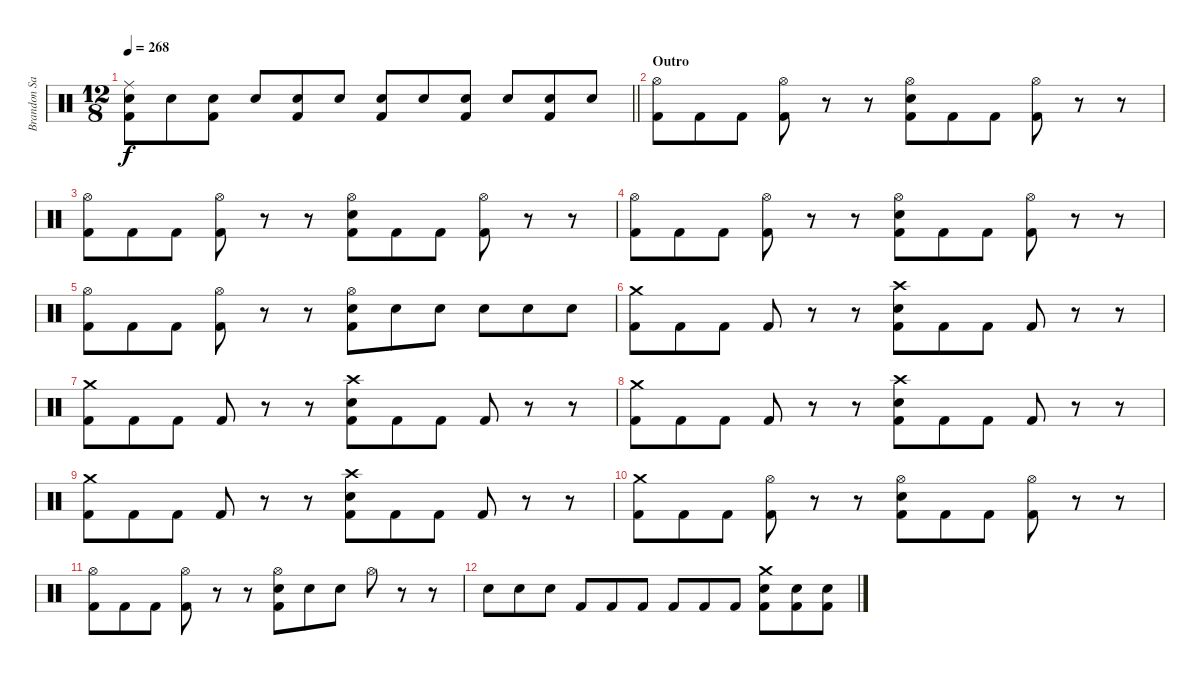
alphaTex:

\track ("Brandon Saller" "Brandon Sa") {instrument percussion}
\staff {score}
\articulation defaults
\ts (12 8)
\tempo 268
\clef neutral
\barLineRight lightlight
\ks c
("Ride (middle)" "Electric Snare (hit)" "Kick (hit) 2").8{dy f} "Electric Snare (hit)".8 ("Electric Snare (hit)" "Kick (hit) 2").8 "Electric Snare (hit)".8 ("Electric Snare (hit)" "Kick (hit) 2").8 "Electric Snare (hit)".8 ("Electric Snare (hit)" "Kick (hit) 2").8 "Electric Snare (hit)".8 ("Electric Snare (hit)" "Kick (hit) 2").8 "Electric Snare (hit)".8 ("Electric Snare (hit)" "Kick (hit) 2").8 "Electric Snare (hit)".8 |
\section ("" "Outro")
("Hi-Hat (open)" "Kick (hit) 2").8 "Kick (hit) 2".8 "Kick (hit) 2".8 ("Hi-Hat (open)" "Kick (hit) 2").8 r.8 r.8 ("Hi-Hat (open)" "Electric Snare (hit)" "Kick (hit) 2").8 "Kick (hit) 2".8 "Kick (hit) 2".8 ("Hi-Hat (open)" "Kick (hit) 2").8 r.8 r.8 |
("Hi-Hat (open)" "Kick (hit) 2").8 "Kick (hit) 2".8 "Kick (hit) 2".8 ("Hi-Hat (open)" "Kick (hit) 2").8 r.8 r.8 ("Hi-Hat (open)" "Electric Snare (hit)" "Kick (hit) 2").8 "Kick (hit) 2".8 "Kick (hit) 2".8 ("Hi-Hat (open)" "Kick (hit) 2").8 r.8 r.8 |
("Hi-Hat (open)" "Kick (hit) 2").8 "Kick (hit) 2".8 "Kick (hit) 2".8 ("Hi-Hat (open)" "Kick (hit) 2").8 r.8 r.8 ("Hi-Hat (open)" "Electric Snare (hit)" "Kick (hit) 2").8 "Kick (hit) 2".8 "Kick (hit) 2".8 ("Hi-Hat (open)" "Kick (hit) 2").8 r.8 r.8 |
("Hi-Hat (open)" "Kick (hit) 2").8 "Kick (hit) 2".8 "Kick (hit) 2".8 ("Hi-Hat (open)" "Kick (hit) 2").8 r.8 r.8 ("Hi-Hat (open)" "Electric Snare (hit)" "Kick (hit) 2").8 "Electric Snare (hit)".8 "Electric Snare (hit)".8 "Electric Snare (hit)".8 "Electric Snare (hit)".8 "Electric Snare (hit)".8 |
("Crash medium (hit)" "Kick (hit) 2").8 "Kick (hit) 2".8 "Kick (hit) 2".8 "Kick (hit) 2".8 r.8 r.8 ("Crash high (hit)" "Electric Snare (hit)" "Kick (hit) 2").8 "Kick (hit) 2".8 "Kick (hit) 2".8 "Kick (hit) 2".8 r.8 r.8 |
("Crash medium (hit)" "Kick (hit) 2").8 "Kick (hit) 2".8 "Kick (hit) 2".8 "Kick (hit) 2".8 r.8 r.8 ("Crash high (hit)" "Electric Snare (hit)" "Kick (hit) 2").8 "Kick (hit) 2".8 "Kick (hit) 2".8 "Kick (hit) 2".8 r.8 r.8 |
("Crash medium (hit)" "Kick (hit) 2").8 "Kick (hit) 2".8 "Kick (hit) 2".8 "Kick (hit) 2".8 r.8 r.8 ("Crash high (hit)" "Electric Snare (hit)" "Kick (hit) 2").8 "Kick (hit) 2".8 "Kick (hit) 2".8 "Kick (hit) 2".8 r.8 r.8 |
("Crash medium (hit)" "Kick (hit) 2").8 "Kick (hit) 2".8 "Kick (hit) 2".8 "Kick (hit) 2".8 r.8 r.8 ("Crash high (hit)" "Electric Snare (hit)" "Kick (hit) 2").8 "Kick (hit) 2".8 "Kick (hit) 2".8 "Kick (hit) 2".8 r.8 r.8 |
("Crash medium (hit)" "Kick (hit) 2").8 "Kick (hit) 2".8 "Kick (hit) 2".8 ("Hi-Hat (open)" "Kick (hit) 2").8 r.8 r.8 ("Hi-Hat (open)" "Electric Snare (hit)" "Kick (hit) 2").8 "Kick (hit) 2".8 "Kick (hit) 2".8 ("Hi-Hat (open)" "Kick (hit) 2").8 r.8 r.8 |
("Hi-Hat (open)" "Kick (hit) 2").8 "Kick (hit) 2".8 "Kick (hit) 2".8 ("Hi-Hat (open)" "Kick (hit) 2").8 r.8 r.8 ("Hi-Hat (open)" "Electric Snare (hit)" "Kick (hit) 2").8 "Electric Snare (hit)".8 "Electric Snare (hit)".8 "Hi-Hat (open)".8 r.8 r.8 |
"Electric Snare (hit)".8 "Electric Snare (hit)".8 "Electric Snare (hit)".8 "Kick (hit) 2".8 "Kick (hit) 2".8 "Kick (hit) 2".8 "Kick (hit) 2".8 "Kick (hit) 2".8 "Kick (hit) 2".8 ("Crash medium (hit)" "Electric Snare (hit)" "Kick (hit) 2").8 ("Electric Snare (hit)" "Kick (hit) 2").8 ("Electric Snare (hit)" "Kick (hit) 2").8
